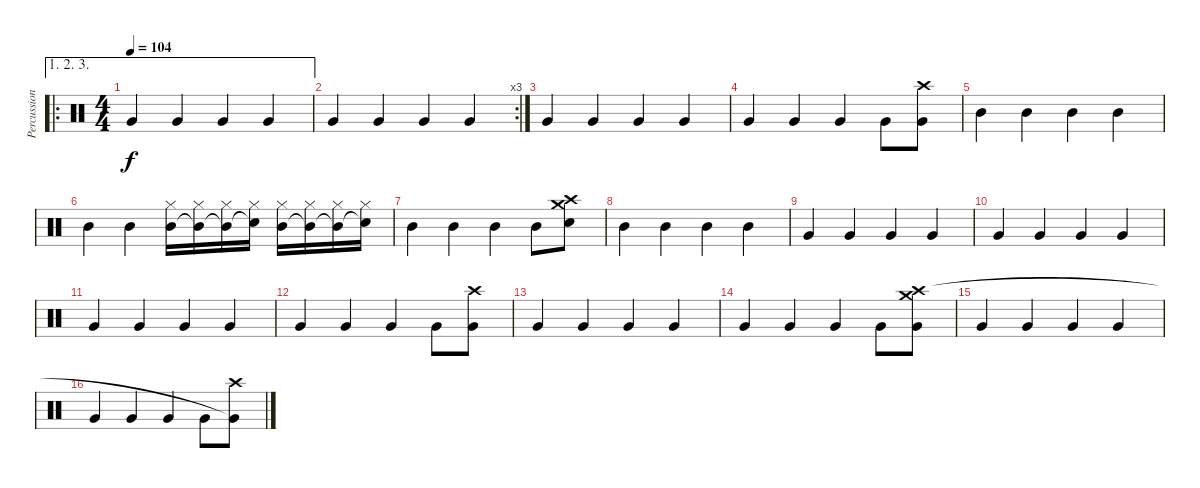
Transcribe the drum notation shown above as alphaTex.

\track ("Percussion" "Percussion") {instrument percussion}
\staff {score}
\articulation defaults
\ae (1 2 3)
\ro
\ts (4 4)
\tempo 104
\clef neutral
\ks c "Very Low Tom (hit)".4{dy f} "Very Low Tom (hit)".4 "Very Low Tom (hit)".4 "Very Low Tom (hit)".4
|
\rc 3 "Very Low Tom (hit)".4 "Very Low Tom (hit)".4 "Very Low Tom (hit)".4 "Very Low Tom (hit)".4
|
"Very Low Tom (hit)".4 "Very Low Tom (hit)".4 "Very Low Tom (hit)".4 "Very Low Tom (hit)".4 |
"Very Low Tom (hit)".4 "Very Low Tom (hit)".4 "Very Low Tom (hit)".4 "Very Low Tom (hit)".8 ("Crash high (hit)" "Very Low Tom (hit)").8 |
"Mid Tom (hit)".4 "Mid Tom (hit)".4 "Mid Tom (hit)".4 "Mid Tom (hit)".4 |
"Mid Tom (hit)".4 "Mid Tom (hit)".4 ("Hi-Hat (closed)" "Mid Tom (hit)").16 ("Hi-Hat (closed)" "Mid Tom (hit)"{t}).16 ("Hi-Hat (closed)" "Mid Tom (hit)"{t}).16 ("Hi-Hat (closed)" "Snare (hit)"{t}).16 ("Hi-Hat (closed)" "Mid Tom (hit)").16 ("Hi-Hat (closed)" "Mid Tom (hit)"{t}).16 ("Hi-Hat (closed)" "Mid Tom (hit)"{t}).16 ("Hi-Hat (closed)" "Snare (hit)"{t}).16 |
"Mid Tom (hit)".4 "Mid Tom (hit)".4 "Mid Tom (hit)".4 "Mid Tom (hit)".8 ("Crash high (hit)" "Crash medium (hit)" "Snare (hit)").8 |
"Mid Tom (hit)".4 "Mid Tom (hit)".4 "Mid Tom (hit)".4 "Mid Tom (hit)".4 |
"Very Low Tom (hit)".4 "Very Low Tom (hit)".4 "Very Low Tom (hit)".4 "Very Low Tom (hit)".4 |
"Very Low Tom (hit)".4 "Very Low Tom (hit)".4 "Very Low Tom (hit)".4 "Very Low Tom (hit)".4 |
"Very Low Tom (hit)".4 "Very Low Tom (hit)".4 "Very Low Tom (hit)".4 "Very Low Tom (hit)".4 |
"Very Low Tom (hit)".4 "Very Low Tom (hit)".4 "Very Low Tom (hit)".4 "Very Low Tom (hit)".8 ("Crash high (hit)" "Very Low Tom (hit)").8 |
"Very Low Tom (hit)".4 "Very Low Tom (hit)".4 "Very Low Tom (hit)".4 "Very Low Tom (hit)".4 |
"Very Low Tom (hit)".4 "Very Low Tom (hit)".4 "Very Low Tom (hit)".4 "Very Low Tom (hit)".8 ("Crash medium (hit)" "Crash high (hit)" "Very Low Tom (hit)").8 |
"Very Low Tom (hit)".4 "Very Low Tom (hit)".4 "Very Low Tom (hit)".4 "Very Low Tom (hit)".4 |
"Very Low Tom (hit)".4 "Very Low Tom (hit)".4 "Very Low Tom (hit)".4 "Very Low Tom (hit)".8 ("Crash high (hit)" "Very Low Tom (hit)"{t}).8
